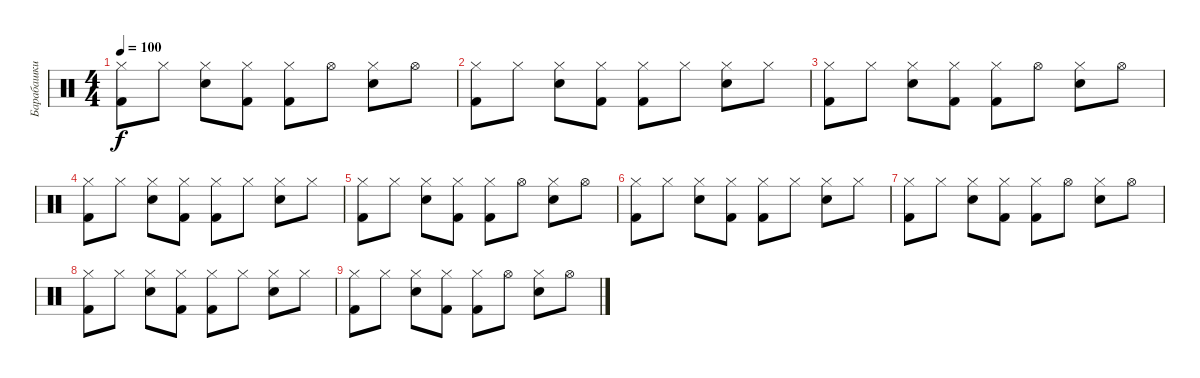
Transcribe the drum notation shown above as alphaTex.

\track ("Барабашки" "Барабашки") {instrument percussion}
\staff {score}
\articulation defaults
\ts (4 4)
\tempo 100
\clef neutral
\ks c
("Hi-Hat (closed)" "Kick (hit) 2").8{dy f} "Hi-Hat (closed)".8 ("Hi-Hat (closed)" "Electric Snare (hit)").8 ("Hi-Hat (closed)" "Kick (hit) 2").8 ("Hi-Hat (closed)" "Kick (hit) 2").8 "Hi-Hat (open)".8 ("Hi-Hat (closed)" "Electric Snare (hit)").8 "Hi-Hat (open)".8 |
("Hi-Hat (closed)" "Kick (hit) 2").8 "Hi-Hat (closed)".8 ("Hi-Hat (closed)" "Electric Snare (hit)").8 ("Hi-Hat (closed)" "Kick (hit) 2").8 ("Hi-Hat (closed)" "Kick (hit) 2").8 "Hi-Hat (closed)".8 ("Hi-Hat (closed)" "Electric Snare (hit)").8 "Hi-Hat (closed)".8 |
("Hi-Hat (closed)" "Kick (hit) 2").8 "Hi-Hat (closed)".8 ("Hi-Hat (closed)" "Electric Snare (hit)").8 ("Hi-Hat (closed)" "Kick (hit) 2").8 ("Hi-Hat (closed)" "Kick (hit) 2").8 "Hi-Hat (open)".8 ("Hi-Hat (closed)" "Electric Snare (hit)").8 "Hi-Hat (open)".8 |
("Hi-Hat (closed)" "Kick (hit) 2").8 "Hi-Hat (closed)".8 ("Hi-Hat (closed)" "Electric Snare (hit)").8 ("Hi-Hat (closed)" "Kick (hit) 2").8 ("Hi-Hat (closed)" "Kick (hit) 2").8 "Hi-Hat (closed)".8 ("Hi-Hat (closed)" "Electric Snare (hit)").8 "Hi-Hat (closed)".8 |
("Hi-Hat (closed)" "Kick (hit) 2").8 "Hi-Hat (closed)".8 ("Hi-Hat (closed)" "Electric Snare (hit)").8 ("Hi-Hat (closed)" "Kick (hit) 2").8 ("Hi-Hat (closed)" "Kick (hit) 2").8 "Hi-Hat (open)".8 ("Hi-Hat (closed)" "Electric Snare (hit)").8 "Hi-Hat (open)".8 |
("Hi-Hat (closed)" "Kick (hit) 2").8 "Hi-Hat (closed)".8 ("Hi-Hat (closed)" "Electric Snare (hit)").8 ("Hi-Hat (closed)" "Kick (hit) 2").8 ("Hi-Hat (closed)" "Kick (hit) 2").8 "Hi-Hat (closed)".8 ("Hi-Hat (closed)" "Electric Snare (hit)").8 "Hi-Hat (closed)".8 |
("Hi-Hat (closed)" "Kick (hit) 2").8 "Hi-Hat (closed)".8 ("Hi-Hat (closed)" "Electric Snare (hit)").8 ("Hi-Hat (closed)" "Kick (hit) 2").8 ("Hi-Hat (closed)" "Kick (hit) 2").8 "Hi-Hat (open)".8 ("Hi-Hat (closed)" "Electric Snare (hit)").8 "Hi-Hat (open)".8 |
("Hi-Hat (closed)" "Kick (hit) 2").8 "Hi-Hat (closed)".8 ("Hi-Hat (closed)" "Electric Snare (hit)").8 ("Hi-Hat (closed)" "Kick (hit) 2").8 ("Hi-Hat (closed)" "Kick (hit) 2").8 "Hi-Hat (closed)".8 ("Hi-Hat (closed)" "Electric Snare (hit)").8 "Hi-Hat (closed)".8 |
("Hi-Hat (closed)" "Kick (hit) 2").8 "Hi-Hat (closed)".8 ("Hi-Hat (closed)" "Electric Snare (hit)").8 ("Hi-Hat (closed)" "Kick (hit) 2").8 ("Hi-Hat (closed)" "Kick (hit) 2").8 "Hi-Hat (open)".8 ("Hi-Hat (closed)" "Electric Snare (hit)").8 "Hi-Hat (open)".8
